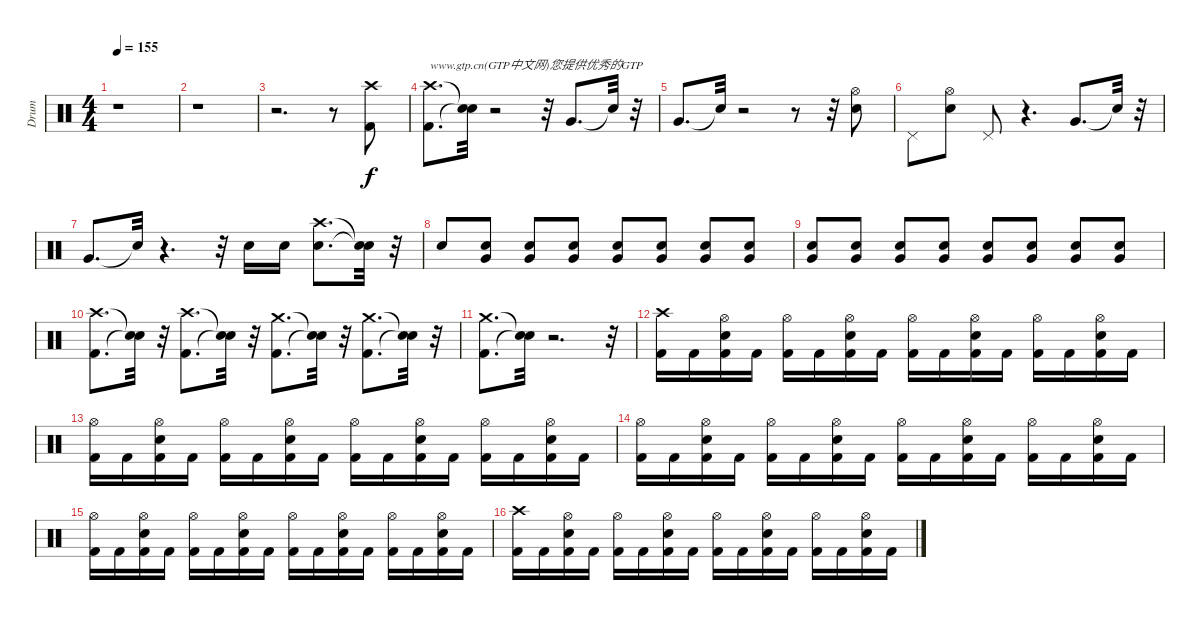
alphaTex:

\track ("Drum" "Drum") {instrument percussion}
\staff {score}
\articulation defaults
\ts (4 4)
\tempo 155
\clef neutral
\ks c
r.1{dy f} |
r.1 |
r.2{d} r.8 ("Kick (hit) 2" "Crash high (hit)").8{volume 16} |
("Kick (hit) 2" "Crash high (hit)").8{d txt "www.gtp.cn(GTP中文网)您提供优秀的GTP"} ("Snare (hit)"{t} "Snare (hit)"{t}).32 r.2 r.32 "Very Low Tom (hit)".8{d} "Snare (hit)"{t}.32 r.32 |
"Very Low Tom (hit)".8{d} "Snare (hit)"{t}.32 r.2 r.8 r.32 ("Snare (hit) 2" "Hi-Hat (open)").8 |
"Pedal Hi-Hat (hit)".8 ("Snare (hit) 2" "Hi-Hat (open)").8 "Pedal Hi-Hat (hit)".8 r.4{d} "Very Low Tom (hit)".8{d} "Snare (hit)"{t}.32 r.32 |
"Very Low Tom (hit)".8{d} "Snare (hit)"{t}.32 r.4{d} r.32 "Snare (hit) 2".16 "Snare (hit) 2".16 ("Snare (hit) 2" "Crash high (hit)").8{d} ("Snare (hit)"{t} "Snare (hit)"{t}).32 r.32 |
"Snare (hit) 2".8 ("Snare (hit) 2" "Very Low Tom (hit)").8 ("Snare (hit) 2" "Very Low Tom (hit)").8 ("Snare (hit) 2" "Very Low Tom (hit)").8 ("Snare (hit) 2" "Very Low Tom (hit)").8 ("Snare (hit) 2" "Very Low Tom (hit)").8 ("Snare (hit) 2" "Very Low Tom (hit)").8 ("Snare (hit) 2" "Very Low Tom (hit)").8 |
("Snare (hit) 2" "Very Low Tom (hit)").8 ("Snare (hit) 2" "Very Low Tom (hit)").8 ("Snare (hit) 2" "Very Low Tom (hit)").8 ("Snare (hit) 2" "Very Low Tom (hit)").8 ("Snare (hit) 2" "Very Low Tom (hit)").8 ("Snare (hit) 2" "Very Low Tom (hit)").8 ("Snare (hit) 2" "Very Low Tom (hit)").8 ("Snare (hit) 2" "Very Low Tom (hit)").8 |
("Kick (hit) 2" "Crash high (hit)").8{d} ("Snare (hit)"{t} "Snare (hit)"{t}).32 r.32 ("Kick (hit) 2" "Crash high (hit)").8{d} ("Snare (hit)"{t} "Snare (hit)"{t}).32 r.32 ("Kick (hit) 2" "Crash medium (hit)").8{d} ("Snare (hit)"{t} "Snare (hit)"{t}).32 r.32 ("Kick (hit) 2" "Crash medium (hit)").8{d} ("Snare (hit)"{t} "Snare (hit)"{t}).32 r.32 |
("Kick (hit) 2" "Crash medium (hit)").8{d} ("Snare (hit)"{t} "Snare (hit)"{t}).32 r.2{d} r.32 |
("Kick (hit) 2" "Crash high (hit)").16 "Kick (hit) 2".16 ("Kick (hit) 2" "Hi-Hat (open)" "Snare (hit) 2").16 "Kick (hit) 2".16 ("Kick (hit) 2" "Hi-Hat (open)").16 "Kick (hit) 2".16 ("Kick (hit) 2" "Hi-Hat (open)" "Snare (hit) 2").16 "Kick (hit) 2".16 ("Kick (hit) 2" "Hi-Hat (open)").16 "Kick (hit) 2".16 ("Kick (hit) 2" "Hi-Hat (open)" "Snare (hit) 2").16 "Kick (hit) 2".16 ("Kick (hit) 2" "Hi-Hat (open)").16 "Kick (hit) 2".16 ("Kick (hit) 2" "Hi-Hat (open)" "Snare (hit) 2").16 "Kick (hit) 2".16 |
("Kick (hit) 2" "Hi-Hat (open)").16 "Kick (hit) 2".16 ("Kick (hit) 2" "Hi-Hat (open)" "Snare (hit) 2").16 "Kick (hit) 2".16 ("Kick (hit) 2" "Hi-Hat (open)").16 "Kick (hit) 2".16 ("Kick (hit) 2" "Hi-Hat (open)" "Snare (hit) 2").16 "Kick (hit) 2".16 ("Kick (hit) 2" "Hi-Hat (open)").16 "Kick (hit) 2".16 ("Kick (hit) 2" "Hi-Hat (open)" "Snare (hit) 2").16 "Kick (hit) 2".16 ("Kick (hit) 2" "Hi-Hat (open)").16 "Kick (hit) 2".16 ("Kick (hit) 2" "Hi-Hat (open)" "Snare (hit) 2").16 "Kick (hit) 2".16 |
("Kick (hit) 2" "Hi-Hat (open)").16 "Kick (hit) 2".16 ("Kick (hit) 2" "Hi-Hat (open)" "Snare (hit) 2").16 "Kick (hit) 2".16 ("Kick (hit) 2" "Hi-Hat (open)").16 "Kick (hit) 2".16 ("Kick (hit) 2" "Hi-Hat (open)" "Snare (hit) 2").16 "Kick (hit) 2".16 ("Kick (hit) 2" "Hi-Hat (open)").16 "Kick (hit) 2".16 ("Kick (hit) 2" "Hi-Hat (open)" "Snare (hit) 2").16 "Kick (hit) 2".16 ("Kick (hit) 2" "Hi-Hat (open)").16 "Kick (hit) 2".16 ("Kick (hit) 2" "Hi-Hat (open)" "Snare (hit) 2").16 "Kick (hit) 2".16 |
("Kick (hit) 2" "Hi-Hat (open)").16 "Kick (hit) 2".16 ("Kick (hit) 2" "Hi-Hat (open)" "Snare (hit) 2").16 "Kick (hit) 2".16 ("Kick (hit) 2" "Hi-Hat (open)").16 "Kick (hit) 2".16 ("Kick (hit) 2" "Hi-Hat (open)" "Snare (hit) 2").16 "Kick (hit) 2".16 ("Kick (hit) 2" "Hi-Hat (open)").16 "Kick (hit) 2".16 ("Kick (hit) 2" "Hi-Hat (open)" "Snare (hit) 2").16 "Kick (hit) 2".16 ("Kick (hit) 2" "Hi-Hat (open)").16 "Kick (hit) 2".16 ("Kick (hit) 2" "Hi-Hat (open)" "Snare (hit) 2").16 "Kick (hit) 2".16 |
("Kick (hit) 2" "Crash high (hit)").16 "Kick (hit) 2".16 ("Kick (hit) 2" "Hi-Hat (open)" "Snare (hit) 2").16 "Kick (hit) 2".16 ("Kick (hit) 2" "Hi-Hat (open)").16 "Kick (hit) 2".16 ("Kick (hit) 2" "Hi-Hat (open)" "Snare (hit) 2").16 "Kick (hit) 2".16 ("Kick (hit) 2" "Hi-Hat (open)").16 "Kick (hit) 2".16 ("Kick (hit) 2" "Hi-Hat (open)" "Snare (hit) 2").16 "Kick (hit) 2".16 ("Kick (hit) 2" "Hi-Hat (open)").16 "Kick (hit) 2".16 ("Kick (hit) 2" "Hi-Hat (open)" "Snare (hit) 2").16 "Kick (hit) 2".16
